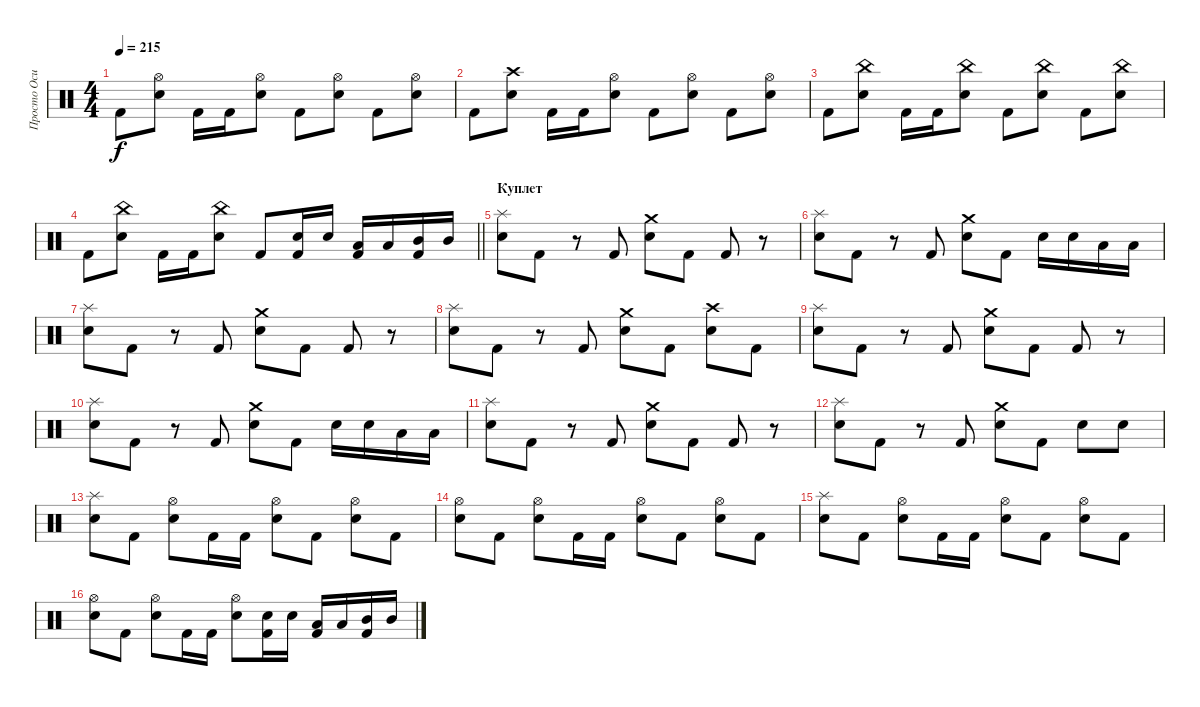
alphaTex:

\track ("Просто Осип" "Просто Оси") {instrument percussion}
\staff {score}
\articulation defaults
\ts (4 4)
\tempo 215
\clef neutral
\ks c "Kick (hit) 2".8{dy f}
("Electric Snare (hit)" "Hi-Hat (open)").8 "Kick (hit) 2".16 "Kick (hit) 2".16 ("Electric Snare (hit)" "Hi-Hat (open)").8 "Kick (hit) 2".8 ("Electric Snare (hit)" "Hi-Hat (open)").8 "Kick (hit) 2".8 ("Electric Snare (hit)" "Hi-Hat (open)").8 |
"Kick (hit) 2".8 ("Electric Snare (hit)" "Crash high (hit)").8 "Kick (hit) 2".16 "Kick (hit) 2".16 ("Electric Snare (hit)" "Hi-Hat (open)").8 "Kick (hit) 2".8 ("Electric Snare (hit)" "Hi-Hat (open)").8 "Kick (hit) 2".8 ("Electric Snare (hit)" "Hi-Hat (open)").8 |
"Kick (hit) 2".8 ("Electric Snare (hit)" "China (hit)").8 "Kick (hit) 2".16 "Kick (hit) 2".16 ("Electric Snare (hit)" "China (hit)").8 "Kick (hit) 2".8 ("Electric Snare (hit)" "China (hit)").8 "Kick (hit) 2".8 ("Electric Snare (hit)" "China (hit)").8 |
\barLineRight lightlight "Kick (hit) 2".8
("Electric Snare (hit)" "China (hit)").8 "Kick (hit) 2".16 "Kick (hit) 2".16 ("Electric Snare (hit)" "China (hit)").8 "Kick (hit) 2".8 ("Kick (hit) 2" "Electric Snare (hit)").16 "Electric Snare (hit)".16 ("Kick (hit) 2" "Low Tom (hit)").16 "Low Tom (hit)".16 ("Kick (hit) 2" "Mid Tom (hit)").16 "Mid Tom (hit)".16 |
\section ("" "Куплет")
("Electric Snare (hit)" "Splash (hit)").8 "Kick (hit) 2".8 r.8 "Kick (hit) 2".8 ("Electric Snare (hit)" "Crash medium (hit)").8 "Kick (hit) 2".8 "Kick (hit) 2".8 r.8 |
("Electric Snare (hit)" "Splash (hit)").8 "Kick (hit) 2".8 r.8 "Kick (hit) 2".8 ("Electric Snare (hit)" "Crash medium (hit)").8 "Kick (hit) 2".8 "Electric Snare (hit)".16 "Electric Snare (hit)".16 "Low Tom (hit)".16 "Low Tom (hit)".16 |
("Electric Snare (hit)" "Splash (hit)").8 "Kick (hit) 2".8 r.8 "Kick (hit) 2".8 ("Electric Snare (hit)" "Crash medium (hit)").8 "Kick (hit) 2".8 "Kick (hit) 2".8 r.8 |
("Electric Snare (hit)" "Splash (hit)").8 "Kick (hit) 2".8 r.8 "Kick (hit) 2".8 ("Electric Snare (hit)" "Crash medium (hit)").8 "Kick (hit) 2".8 ("Electric Snare (hit)" "Crash high (hit)").8 "Kick (hit) 2".8 |
("Electric Snare (hit)" "Splash (hit)").8 "Kick (hit) 2".8 r.8 "Kick (hit) 2".8 ("Electric Snare (hit)" "Crash medium (hit)").8 "Kick (hit) 2".8 "Kick (hit) 2".8 r.8 |
("Electric Snare (hit)" "Splash (hit)").8 "Kick (hit) 2".8 r.8 "Kick (hit) 2".8 ("Electric Snare (hit)" "Crash medium (hit)").8 "Kick (hit) 2".8 "Electric Snare (hit)".16 "Electric Snare (hit)".16 "Low Tom (hit)".16 "Low Tom (hit)".16 |
("Electric Snare (hit)" "Splash (hit)").8 "Kick (hit) 2".8 r.8 "Kick (hit) 2".8 ("Electric Snare (hit)" "Crash medium (hit)").8 "Kick (hit) 2".8 "Kick (hit) 2".8 r.8 |
("Electric Snare (hit)" "Splash (hit)").8 "Kick (hit) 2".8 r.8 "Kick (hit) 2".8 ("Electric Snare (hit)" "Crash medium (hit)").8 "Kick (hit) 2".8 "Electric Snare (hit)".8 "Electric Snare (hit)".8 |
("Electric Snare (hit)" "Splash (hit)").8 "Kick (hit) 2".8 ("Electric Snare (hit)" "Hi-Hat (open)").8 "Kick (hit) 2".16 "Kick (hit) 2".16 ("Electric Snare (hit)" "Hi-Hat (open)").8 "Kick (hit) 2".8 ("Electric Snare (hit)" "Hi-Hat (open)").8 "Kick (hit) 2".8 |
("Electric Snare (hit)" "Hi-Hat (open)").8 "Kick (hit) 2".8 ("Electric Snare (hit)" "Hi-Hat (open)").8 "Kick (hit) 2".16 "Kick (hit) 2".16 ("Electric Snare (hit)" "Hi-Hat (open)").8 "Kick (hit) 2".8 ("Electric Snare (hit)" "Hi-Hat (open)").8 "Kick (hit) 2".8 |
("Electric Snare (hit)" "Splash (hit)").8 "Kick (hit) 2".8 ("Electric Snare (hit)" "Hi-Hat (open)").8 "Kick (hit) 2".16 "Kick (hit) 2".16 ("Electric Snare (hit)" "Hi-Hat (open)").8 "Kick (hit) 2".8 ("Electric Snare (hit)" "Hi-Hat (open)").8 "Kick (hit) 2".8 |
("Electric Snare (hit)" "Hi-Hat (open)").8 "Kick (hit) 2".8 ("Electric Snare (hit)" "Hi-Hat (open)").8 "Kick (hit) 2".16 "Kick (hit) 2".16 ("Electric Snare (hit)" "Hi-Hat (open)").8 ("Kick (hit) 2" "Electric Snare (hit)").16 "Electric Snare (hit)".16 ("Kick (hit) 2" "Low Tom (hit)").16 "Low Tom (hit)".16 ("Kick (hit) 2" "Mid Tom (hit)").16 "Mid Tom (hit)".16
